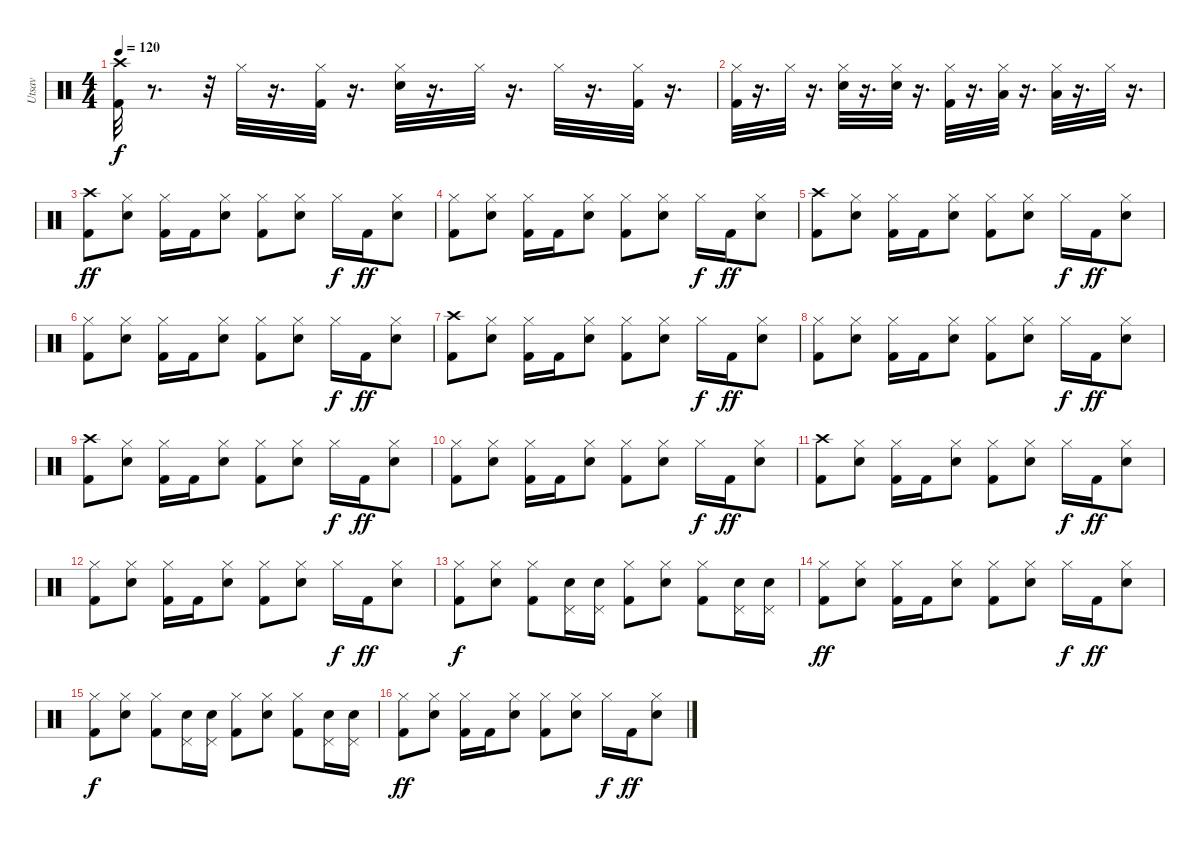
\track ("Utsav" "Utsav") {instrument percussion}
\staff {score}
\articulation defaults
\ts (4 4)
\tempo 120
\clef neutral
\ks c
("Kick (hit) 2" "Crash high (hit)").32{dy f} r.8{d} r.32 "Hi-Hat (closed)".32 r.16{d} ("Hi-Hat (closed)" "Kick (hit) 2").32 r.16{d} ("Snare (hit) 2" "Hi-Hat (closed)").32 r.16{d} "Hi-Hat (closed)".32 r.16{d} "Hi-Hat (closed)".32 r.16{d} ("Hi-Hat (closed)" "Kick (hit) 2").32 r.16{d} |
("Kick (hit) 2" "Hi-Hat (closed)").32 r.16{d} "Hi-Hat (closed)".32 r.16{d} ("Snare (hit) 2" "Hi-Hat (closed)").32 r.16{d} ("Snare (hit) 2" "Hi-Hat (closed)").32 r.16{d} ("Hi-Hat (closed)" "Kick (hit) 2").32 r.16{d} ("Low Tom (hit)" "Hi-Hat (closed)").32 r.16{d} ("Low Tom (hit)" "Hi-Hat (closed)").32 r.16{d} "Hi-Hat (closed)".32 r.16{d} |
("Crash high (hit)" "Kick (hit) 2").8{dy ff} ("Hi-Hat (closed)" "Snare (hit) 2").8 ("Hi-Hat (closed)" "Kick (hit) 2").16 "Kick (hit) 2".16 ("Hi-Hat (closed)" "Snare (hit) 2").8 ("Hi-Hat (closed)" "Kick (hit) 2").8 ("Hi-Hat (closed)" "Snare (hit) 2").8 "Hi-Hat (closed)".16{dy f} "Kick (hit) 2".16{dy ff} ("Hi-Hat (closed)" "Snare (hit) 2").8 |
("Hi-Hat (closed)" "Kick (hit) 2").8 ("Hi-Hat (closed)" "Snare (hit) 2").8 ("Hi-Hat (closed)" "Kick (hit) 2").16 "Kick (hit) 2".16 ("Hi-Hat (closed)" "Snare (hit) 2").8 ("Hi-Hat (closed)" "Kick (hit) 2").8 ("Hi-Hat (closed)" "Snare (hit) 2").8 "Hi-Hat (closed)".16{dy f} "Kick (hit) 2".16{dy ff} ("Hi-Hat (closed)" "Snare (hit) 2").8 |
("Crash high (hit)" "Kick (hit) 2").8 ("Hi-Hat (closed)" "Snare (hit) 2").8 ("Hi-Hat (closed)" "Kick (hit) 2").16 "Kick (hit) 2".16 ("Hi-Hat (closed)" "Snare (hit) 2").8 ("Hi-Hat (closed)" "Kick (hit) 2").8 ("Hi-Hat (closed)" "Snare (hit) 2").8 "Hi-Hat (closed)".16{dy f} "Kick (hit) 2".16{dy ff} ("Hi-Hat (closed)" "Snare (hit) 2").8 |
("Hi-Hat (closed)" "Kick (hit) 2").8 ("Hi-Hat (closed)" "Snare (hit) 2").8 ("Hi-Hat (closed)" "Kick (hit) 2").16 "Kick (hit) 2".16 ("Hi-Hat (closed)" "Snare (hit) 2").8 ("Hi-Hat (closed)" "Kick (hit) 2").8 ("Hi-Hat (closed)" "Snare (hit) 2").8 "Hi-Hat (closed)".16{dy f} "Kick (hit) 2".16{dy ff} ("Hi-Hat (closed)" "Snare (hit) 2").8 |
("Crash high (hit)" "Kick (hit) 2").8 ("Hi-Hat (closed)" "Snare (hit) 2").8 ("Hi-Hat (closed)" "Kick (hit) 2").16 "Kick (hit) 2".16 ("Hi-Hat (closed)" "Snare (hit) 2").8 ("Hi-Hat (closed)" "Kick (hit) 2").8 ("Hi-Hat (closed)" "Snare (hit) 2").8 "Hi-Hat (closed)".16{dy f} "Kick (hit) 2".16{dy ff} ("Hi-Hat (closed)" "Snare (hit) 2").8 |
("Hi-Hat (closed)" "Kick (hit) 2").8 ("Hi-Hat (closed)" "Snare (hit) 2").8 ("Hi-Hat (closed)" "Kick (hit) 2").16 "Kick (hit) 2".16 ("Hi-Hat (closed)" "Snare (hit) 2").8 ("Hi-Hat (closed)" "Kick (hit) 2").8 ("Hi-Hat (closed)" "Snare (hit) 2").8 "Hi-Hat (closed)".16{dy f} "Kick (hit) 2".16{dy ff} ("Hi-Hat (closed)" "Snare (hit) 2").8 |
("Crash high (hit)" "Kick (hit) 2").8 ("Hi-Hat (closed)" "Snare (hit) 2").8 ("Hi-Hat (closed)" "Kick (hit) 2").16 "Kick (hit) 2".16 ("Hi-Hat (closed)" "Snare (hit) 2").8 ("Hi-Hat (closed)" "Kick (hit) 2").8 ("Hi-Hat (closed)" "Snare (hit) 2").8 "Hi-Hat (closed)".16{dy f} "Kick (hit) 2".16{dy ff} ("Hi-Hat (closed)" "Snare (hit) 2").8 |
("Hi-Hat (closed)" "Kick (hit) 2").8 ("Hi-Hat (closed)" "Snare (hit) 2").8 ("Hi-Hat (closed)" "Kick (hit) 2").16 "Kick (hit) 2".16 ("Hi-Hat (closed)" "Snare (hit) 2").8 ("Hi-Hat (closed)" "Kick (hit) 2").8 ("Hi-Hat (closed)" "Snare (hit) 2").8 "Hi-Hat (closed)".16{dy f} "Kick (hit) 2".16{dy ff} ("Hi-Hat (closed)" "Snare (hit) 2").8 |
("Crash high (hit)" "Kick (hit) 2").8 ("Hi-Hat (closed)" "Snare (hit) 2").8 ("Hi-Hat (closed)" "Kick (hit) 2").16 "Kick (hit) 2".16 ("Hi-Hat (closed)" "Snare (hit) 2").8 ("Hi-Hat (closed)" "Kick (hit) 2").8 ("Hi-Hat (closed)" "Snare (hit) 2").8 "Hi-Hat (closed)".16{dy f} "Kick (hit) 2".16{dy ff} ("Hi-Hat (closed)" "Snare (hit) 2").8 |
("Hi-Hat (closed)" "Kick (hit) 2").8 ("Hi-Hat (closed)" "Snare (hit) 2").8 ("Hi-Hat (closed)" "Kick (hit) 2").16 "Kick (hit) 2".16 ("Hi-Hat (closed)" "Snare (hit) 2").8 ("Hi-Hat (closed)" "Kick (hit) 2").8 ("Hi-Hat (closed)" "Snare (hit) 2").8 "Hi-Hat (closed)".16{dy f} "Kick (hit) 2".16{dy ff} ("Hi-Hat (closed)" "Snare (hit) 2").8 |
("Hi-Hat (closed)" "Kick (hit) 2").8{dy f} ("Hi-Hat (closed)" "Snare (hit) 2").8 ("Hi-Hat (closed)" "Kick (hit) 2").8 ("Pedal Hi-Hat (hit)" "Snare (hit) 2").16 ("Pedal Hi-Hat (hit)" "Snare (hit) 2").16 ("Hi-Hat (closed)" "Kick (hit) 2").8 ("Hi-Hat (closed)" "Snare (hit) 2").8 ("Hi-Hat (closed)" "Kick (hit) 2").8 ("Pedal Hi-Hat (hit)" "Snare (hit) 2").16 ("Pedal Hi-Hat (hit)" "Snare (hit) 2").16 |
("Hi-Hat (closed)" "Kick (hit) 2").8{dy ff} ("Hi-Hat (closed)" "Snare (hit) 2").8 ("Hi-Hat (closed)" "Kick (hit) 2").16 "Kick (hit) 2".16 ("Hi-Hat (closed)" "Snare (hit) 2").8 ("Hi-Hat (closed)" "Kick (hit) 2").8 ("Hi-Hat (closed)" "Snare (hit) 2").8 "Hi-Hat (closed)".16{dy f} "Kick (hit) 2".16{dy ff} ("Hi-Hat (closed)" "Snare (hit) 2").8 |
("Hi-Hat (closed)" "Kick (hit) 2").8{dy f} ("Hi-Hat (closed)" "Snare (hit) 2").8 ("Hi-Hat (closed)" "Kick (hit) 2").8 ("Pedal Hi-Hat (hit)" "Snare (hit) 2").16 ("Pedal Hi-Hat (hit)" "Snare (hit) 2").16 ("Hi-Hat (closed)" "Kick (hit) 2").8 ("Hi-Hat (closed)" "Snare (hit) 2").8 ("Hi-Hat (closed)" "Kick (hit) 2").8 ("Pedal Hi-Hat (hit)" "Snare (hit) 2").16 ("Pedal Hi-Hat (hit)" "Snare (hit) 2").16 |
("Hi-Hat (closed)" "Kick (hit) 2").8{dy ff} ("Hi-Hat (closed)" "Snare (hit) 2").8 ("Hi-Hat (closed)" "Kick (hit) 2").16 "Kick (hit) 2".16 ("Hi-Hat (closed)" "Snare (hit) 2").8 ("Hi-Hat (closed)" "Kick (hit) 2").8 ("Hi-Hat (closed)" "Snare (hit) 2").8 "Hi-Hat (closed)".16{dy f} "Kick (hit) 2".16{dy ff} ("Hi-Hat (closed)" "Snare (hit) 2").8
